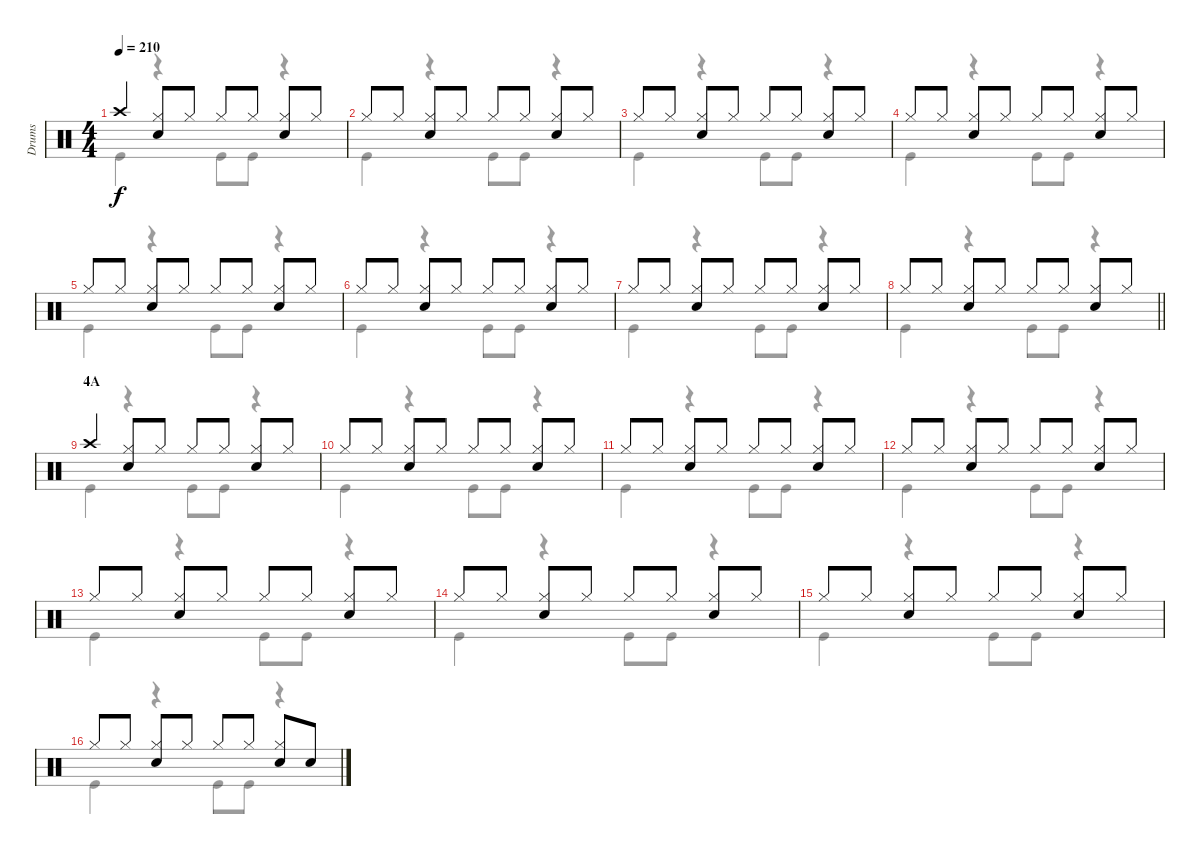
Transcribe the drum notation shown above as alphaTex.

\track ("Drums" "Drums") {instrument percussion}
\staff {score}
\articulation defaults
\voice
\ts (4 4)
\tempo 210
\clef neutral
\ks c "Crash high (hit)".4{dy f}
("Hi-Hat (closed)" "Snare (hit) 2").8 "Hi-Hat (closed)".8 "Hi-Hat (closed)".8 "Hi-Hat (closed)".8 ("Hi-Hat (closed)" "Snare (hit) 2").8 "Hi-Hat (closed)".8 |
"Hi-Hat (closed)".8 "Hi-Hat (closed)".8 ("Hi-Hat (closed)" "Snare (hit) 2").8 "Hi-Hat (closed)".8 "Hi-Hat (closed)".8 "Hi-Hat (closed)".8 ("Hi-Hat (closed)" "Snare (hit) 2").8 "Hi-Hat (closed)".8 |
"Hi-Hat (closed)".8 "Hi-Hat (closed)".8 ("Hi-Hat (closed)" "Snare (hit) 2").8 "Hi-Hat (closed)".8 "Hi-Hat (closed)".8 "Hi-Hat (closed)".8 ("Hi-Hat (closed)" "Snare (hit) 2").8 "Hi-Hat (closed)".8 |
"Hi-Hat (closed)".8 "Hi-Hat (closed)".8 ("Hi-Hat (closed)" "Snare (hit) 2").8 "Hi-Hat (closed)".8 "Hi-Hat (closed)".8 "Hi-Hat (closed)".8 ("Hi-Hat (closed)" "Snare (hit) 2").8 "Hi-Hat (closed)".8 |
"Hi-Hat (closed)".8 "Hi-Hat (closed)".8 ("Hi-Hat (closed)" "Snare (hit) 2").8 "Hi-Hat (closed)".8 "Hi-Hat (closed)".8 "Hi-Hat (closed)".8 ("Hi-Hat (closed)" "Snare (hit) 2").8 "Hi-Hat (closed)".8 |
"Hi-Hat (closed)".8 "Hi-Hat (closed)".8 ("Hi-Hat (closed)" "Snare (hit) 2").8 "Hi-Hat (closed)".8 "Hi-Hat (closed)".8 "Hi-Hat (closed)".8 ("Hi-Hat (closed)" "Snare (hit) 2").8 "Hi-Hat (closed)".8 |
"Hi-Hat (closed)".8 "Hi-Hat (closed)".8 ("Hi-Hat (closed)" "Snare (hit) 2").8 "Hi-Hat (closed)".8 "Hi-Hat (closed)".8 "Hi-Hat (closed)".8 ("Hi-Hat (closed)" "Snare (hit) 2").8 "Hi-Hat (closed)".8 |
\barLineRight lightlight "Hi-Hat (closed)".8 "Hi-Hat (closed)".8
("Hi-Hat (closed)" "Snare (hit) 2").8 "Hi-Hat (closed)".8 "Hi-Hat (closed)".8 "Hi-Hat (closed)".8 ("Hi-Hat (closed)" "Snare (hit) 2").8 "Hi-Hat (closed)".8 |
\section ("" "4A")
"Crash high (hit)".4 ("Hi-Hat (closed)" "Snare (hit) 2").8 "Hi-Hat (closed)".8 "Hi-Hat (closed)".8 "Hi-Hat (closed)".8 ("Hi-Hat (closed)" "Snare (hit) 2").8 "Hi-Hat (closed)".8 |
"Hi-Hat (closed)".8 "Hi-Hat (closed)".8 ("Hi-Hat (closed)" "Snare (hit) 2").8 "Hi-Hat (closed)".8 "Hi-Hat (closed)".8 "Hi-Hat (closed)".8 ("Hi-Hat (closed)" "Snare (hit) 2").8 "Hi-Hat (closed)".8 |
"Hi-Hat (closed)".8 "Hi-Hat (closed)".8 ("Hi-Hat (closed)" "Snare (hit) 2").8 "Hi-Hat (closed)".8 "Hi-Hat (closed)".8 "Hi-Hat (closed)".8 ("Hi-Hat (closed)" "Snare (hit) 2").8 "Hi-Hat (closed)".8 |
"Hi-Hat (closed)".8 "Hi-Hat (closed)".8 ("Hi-Hat (closed)" "Snare (hit) 2").8 "Hi-Hat (closed)".8 "Hi-Hat (closed)".8 "Hi-Hat (closed)".8 ("Hi-Hat (closed)" "Snare (hit) 2").8 "Hi-Hat (closed)".8 |
"Hi-Hat (closed)".8 "Hi-Hat (closed)".8 ("Hi-Hat (closed)" "Snare (hit) 2").8 "Hi-Hat (closed)".8 "Hi-Hat (closed)".8 "Hi-Hat (closed)".8 ("Hi-Hat (closed)" "Snare (hit) 2").8 "Hi-Hat (closed)".8 |
"Hi-Hat (closed)".8 "Hi-Hat (closed)".8 ("Hi-Hat (closed)" "Snare (hit) 2").8 "Hi-Hat (closed)".8 "Hi-Hat (closed)".8 "Hi-Hat (closed)".8 ("Hi-Hat (closed)" "Snare (hit) 2").8 "Hi-Hat (closed)".8 |
"Hi-Hat (closed)".8 "Hi-Hat (closed)".8 ("Hi-Hat (closed)" "Snare (hit) 2").8 "Hi-Hat (closed)".8 "Hi-Hat (closed)".8 "Hi-Hat (closed)".8 ("Hi-Hat (closed)" "Snare (hit) 2").8 "Hi-Hat (closed)".8 |
"Hi-Hat (closed)".8 "Hi-Hat (closed)".8 ("Hi-Hat (closed)" "Snare (hit) 2").8 "Hi-Hat (closed)".8 "Hi-Hat (closed)".8 "Hi-Hat (closed)".8 ("Hi-Hat (closed)" "Snare (hit) 2").8 "Snare (hit) 2".8
\voice
\clef neutral
\ottava regular
\simile none
\ks c "Kick (hit)".4{dy f}
r.4 "Kick (hit)".8 "Kick (hit)".8 r.4 |
"Kick (hit)".4 r.4 "Kick (hit)".8 "Kick (hit)".8 r.4 |
"Kick (hit)".4 r.4 "Kick (hit)".8 "Kick (hit)".8 r.4 |
"Kick (hit)".4 r.4 "Kick (hit)".8 "Kick (hit)".8 r.4 |
"Kick (hit)".4 r.4 "Kick (hit)".8 "Kick (hit)".8 r.4 |
"Kick (hit)".4 r.4 "Kick (hit)".8 "Kick (hit)".8 r.4 |
"Kick (hit)".4 r.4 "Kick (hit)".8 "Kick (hit)".8 r.4 |
\barLineRight lightlight "Kick (hit)".4
r.4 "Kick (hit)".8 "Kick (hit)".8 r.4 |
"Kick (hit)".4 r.4 "Kick (hit)".8 "Kick (hit)".8 r.4 |
"Kick (hit)".4 r.4 "Kick (hit)".8 "Kick (hit)".8 r.4 |
"Kick (hit)".4 r.4 "Kick (hit)".8 "Kick (hit)".8 r.4 |
"Kick (hit)".4 r.4 "Kick (hit)".8 "Kick (hit)".8 r.4 |
"Kick (hit)".4 r.4 "Kick (hit)".8 "Kick (hit)".8 r.4 |
"Kick (hit)".4 r.4 "Kick (hit)".8 "Kick (hit)".8 r.4 |
"Kick (hit)".4 r.4 "Kick (hit)".8 "Kick (hit)".8 r.4 |
"Kick (hit)".4 r.4 "Kick (hit)".8 "Kick (hit)".8 r.4
